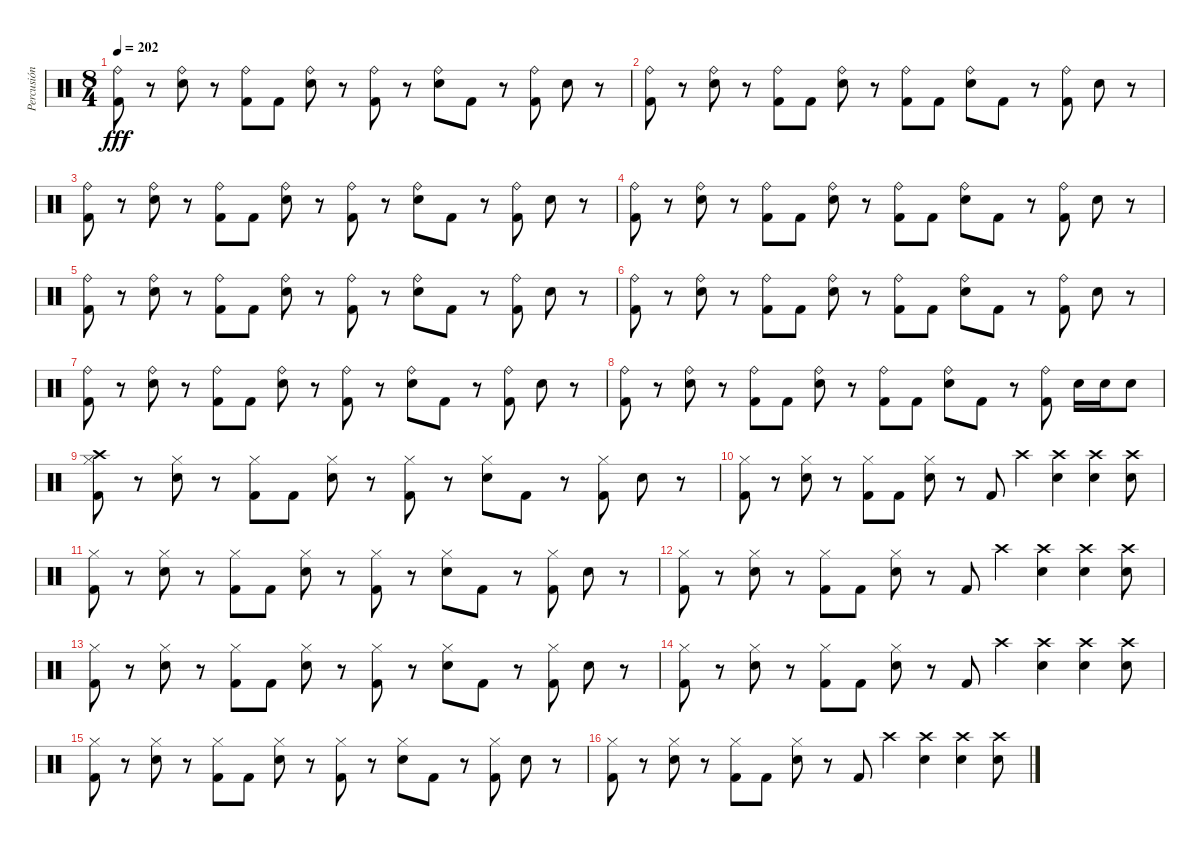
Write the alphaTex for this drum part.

\track ("Percusión (Santi Doré)" "Percusión ") {instrument percussion}
\staff {score}
\articulation defaults
\ts (8 4)
\tempo 202
\clef neutral
\ks c
("Ride (bell)" "Kick (hit) 2").8{dy fff} r.8 ("Ride (bell)" "Electric Snare (hit)").8 r.8 ("Ride (bell)" "Kick (hit) 2").8 "Kick (hit) 2".8 ("Ride (bell)" "Electric Snare (hit)").8 r.8 ("Ride (bell)" "Kick (hit) 2").8 r.8 ("Ride (bell)" "Electric Snare (hit)").8 "Kick (hit) 2".8 r.8 ("Ride (bell)" "Kick (hit) 2").8 "Electric Snare (hit)".8 r.8 |
("Ride (bell)" "Kick (hit) 2").8 r.8 ("Ride (bell)" "Electric Snare (hit)").8 r.8 ("Ride (bell)" "Kick (hit) 2").8 "Kick (hit) 2".8 ("Ride (bell)" "Electric Snare (hit)").8 r.8 ("Ride (bell)" "Kick (hit) 2").8 "Kick (hit) 2".8 ("Ride (bell)" "Electric Snare (hit)").8 "Kick (hit) 2".8 r.8 ("Ride (bell)" "Kick (hit) 2").8 "Electric Snare (hit)".8 r.8 |
("Ride (bell)" "Kick (hit) 2").8 r.8 ("Ride (bell)" "Electric Snare (hit)").8 r.8 ("Ride (bell)" "Kick (hit) 2").8 "Kick (hit) 2".8 ("Ride (bell)" "Electric Snare (hit)").8 r.8 ("Ride (bell)" "Kick (hit) 2").8 r.8 ("Ride (bell)" "Electric Snare (hit)").8 "Kick (hit) 2".8 r.8 ("Ride (bell)" "Kick (hit) 2").8 "Electric Snare (hit)".8 r.8 |
("Ride (bell)" "Kick (hit) 2").8 r.8 ("Ride (bell)" "Electric Snare (hit)").8 r.8 ("Ride (bell)" "Kick (hit) 2").8 "Kick (hit) 2".8 ("Ride (bell)" "Electric Snare (hit)").8 r.8 ("Ride (bell)" "Kick (hit) 2").8 "Kick (hit) 2".8 ("Ride (bell)" "Electric Snare (hit)").8 "Kick (hit) 2".8 r.8 ("Ride (bell)" "Kick (hit) 2").8 "Electric Snare (hit)".8 r.8 |
("Ride (bell)" "Kick (hit) 2").8 r.8 ("Ride (bell)" "Electric Snare (hit)").8 r.8 ("Ride (bell)" "Kick (hit) 2").8 "Kick (hit) 2".8 ("Ride (bell)" "Electric Snare (hit)").8 r.8 ("Ride (bell)" "Kick (hit) 2").8 r.8 ("Ride (bell)" "Electric Snare (hit)").8 "Kick (hit) 2".8 r.8 ("Ride (bell)" "Kick (hit) 2").8 "Electric Snare (hit)".8 r.8 |
("Ride (bell)" "Kick (hit) 2").8 r.8 ("Ride (bell)" "Electric Snare (hit)").8 r.8 ("Ride (bell)" "Kick (hit) 2").8 "Kick (hit) 2".8 ("Ride (bell)" "Electric Snare (hit)").8 r.8 ("Ride (bell)" "Kick (hit) 2").8 "Kick (hit) 2".8 ("Ride (bell)" "Electric Snare (hit)").8 "Kick (hit) 2".8 r.8 ("Ride (bell)" "Kick (hit) 2").8 "Electric Snare (hit)".8 r.8 |
("Ride (bell)" "Kick (hit) 2").8 r.8 ("Ride (bell)" "Electric Snare (hit)").8 r.8 ("Ride (bell)" "Kick (hit) 2").8 "Kick (hit) 2".8 ("Ride (bell)" "Electric Snare (hit)").8 r.8 ("Ride (bell)" "Kick (hit) 2").8 r.8 ("Ride (bell)" "Electric Snare (hit)").8 "Kick (hit) 2".8 r.8 ("Ride (bell)" "Kick (hit) 2").8 "Electric Snare (hit)".8 r.8 |
("Ride (bell)" "Kick (hit) 2").8 r.8 ("Ride (bell)" "Electric Snare (hit)").8 r.8 ("Ride (bell)" "Kick (hit) 2").8 "Kick (hit) 2".8 ("Ride (bell)" "Electric Snare (hit)").8 r.8 ("Ride (bell)" "Kick (hit) 2").8 "Kick (hit) 2".8 ("Ride (bell)" "Electric Snare (hit)").8 "Kick (hit) 2".8 r.8 ("Ride (bell)" "Kick (hit) 2").8 "Electric Snare (hit)".16 "Electric Snare (hit)".16 "Electric Snare (hit)".8 |
("Crash high (hit)" "Hi-Hat (closed)" "Kick (hit) 2").8 r.8 ("Hi-Hat (closed)" "Electric Snare (hit)").8 r.8 ("Hi-Hat (closed)" "Kick (hit) 2").8 "Kick (hit) 2".8 ("Hi-Hat (closed)" "Electric Snare (hit)").8 r.8 ("Hi-Hat (closed)" "Kick (hit) 2").8 r.8 ("Hi-Hat (closed)" "Electric Snare (hit)").8 "Kick (hit) 2".8 r.8 ("Hi-Hat (closed)" "Kick (hit) 2").8 "Electric Snare (hit)".8 r.8 |
("Hi-Hat (closed)" "Kick (hit) 2").8 r.8 ("Hi-Hat (closed)" "Electric Snare (hit)").8 r.8 ("Hi-Hat (closed)" "Kick (hit) 2").8 "Kick (hit) 2".8 ("Hi-Hat (closed)" "Electric Snare (hit)").8 r.8 "Kick (hit) 2".8 "Crash high (hit)".4 ("Crash high (hit)" "Electric Snare (hit)").4 ("Crash high (hit)" "Electric Snare (hit)").4 ("Crash high (hit)" "Electric Snare (hit)").8 |
("Hi-Hat (closed)" "Kick (hit) 2").8 r.8 ("Hi-Hat (closed)" "Electric Snare (hit)").8 r.8 ("Hi-Hat (closed)" "Kick (hit) 2").8 "Kick (hit) 2".8 ("Hi-Hat (closed)" "Electric Snare (hit)").8 r.8 ("Hi-Hat (closed)" "Kick (hit) 2").8 r.8 ("Hi-Hat (closed)" "Electric Snare (hit)").8 "Kick (hit) 2".8 r.8 ("Hi-Hat (closed)" "Kick (hit) 2").8 "Electric Snare (hit)".8 r.8 |
("Hi-Hat (closed)" "Kick (hit) 2").8 r.8 ("Hi-Hat (closed)" "Electric Snare (hit)").8 r.8 ("Hi-Hat (closed)" "Kick (hit) 2").8 "Kick (hit) 2".8 ("Hi-Hat (closed)" "Electric Snare (hit)").8 r.8 "Kick (hit) 2".8 "Crash high (hit)".4 ("Crash high (hit)" "Electric Snare (hit)").4 ("Crash high (hit)" "Electric Snare (hit)").4 ("Crash high (hit)" "Electric Snare (hit)").8 |
("Hi-Hat (closed)" "Kick (hit) 2").8 r.8 ("Hi-Hat (closed)" "Electric Snare (hit)").8 r.8 ("Hi-Hat (closed)" "Kick (hit) 2").8 "Kick (hit) 2".8 ("Hi-Hat (closed)" "Electric Snare (hit)").8 r.8 ("Hi-Hat (closed)" "Kick (hit) 2").8 r.8 ("Hi-Hat (closed)" "Electric Snare (hit)").8 "Kick (hit) 2".8 r.8 ("Hi-Hat (closed)" "Kick (hit) 2").8 "Electric Snare (hit)".8 r.8 |
("Hi-Hat (closed)" "Kick (hit) 2").8 r.8 ("Hi-Hat (closed)" "Electric Snare (hit)").8 r.8 ("Hi-Hat (closed)" "Kick (hit) 2").8 "Kick (hit) 2".8 ("Hi-Hat (closed)" "Electric Snare (hit)").8 r.8 "Kick (hit) 2".8 "Crash high (hit)".4 ("Crash high (hit)" "Electric Snare (hit)").4 ("Crash high (hit)" "Electric Snare (hit)").4 ("Crash high (hit)" "Electric Snare (hit)").8 |
("Hi-Hat (closed)" "Kick (hit) 2").8 r.8 ("Hi-Hat (closed)" "Electric Snare (hit)").8 r.8 ("Hi-Hat (closed)" "Kick (hit) 2").8 "Kick (hit) 2".8 ("Hi-Hat (closed)" "Electric Snare (hit)").8 r.8 ("Hi-Hat (closed)" "Kick (hit) 2").8 r.8 ("Hi-Hat (closed)" "Electric Snare (hit)").8 "Kick (hit) 2".8 r.8 ("Hi-Hat (closed)" "Kick (hit) 2").8 "Electric Snare (hit)".8 r.8 |
("Hi-Hat (closed)" "Kick (hit) 2").8 r.8 ("Hi-Hat (closed)" "Electric Snare (hit)").8 r.8 ("Hi-Hat (closed)" "Kick (hit) 2").8 "Kick (hit) 2".8 ("Hi-Hat (closed)" "Electric Snare (hit)").8 r.8 "Kick (hit) 2".8 "Crash high (hit)".4 ("Crash high (hit)" "Electric Snare (hit)").4 ("Crash high (hit)" "Electric Snare (hit)").4 ("Crash high (hit)" "Electric Snare (hit)").8
